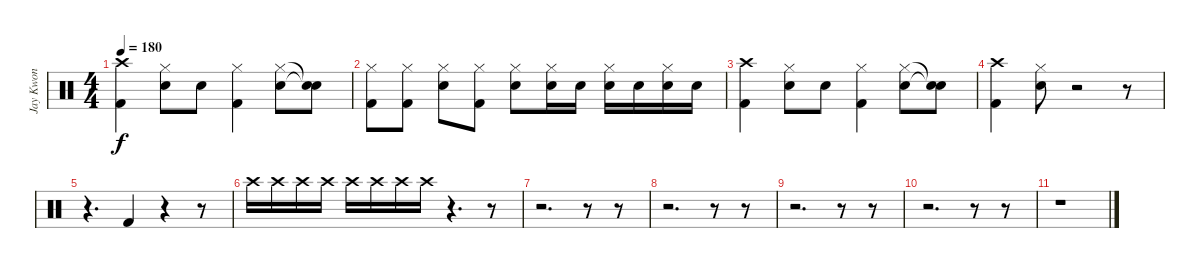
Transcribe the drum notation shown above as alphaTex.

\track ("Jay Kwon" "Jay Kwon") {instrument percussion}
\staff {score}
\articulation defaults
\ts (4 4)
\tempo 180
\clef neutral
\ks c
("Crash high (hit)" "Kick (hit) 2").4{dy f} ("Hi-Hat (closed)" "Electric Snare (hit)").8 "Electric Snare (hit)".8 ("Hi-Hat (closed)" "Kick (hit) 2").4 ("Hi-Hat (closed)" "Electric Snare (hit)").8 ("Snare (hit)"{t} "Snare (hit)"{t}).8 |
("Hi-Hat (closed)" "Kick (hit) 2").8 ("Hi-Hat (closed)" "Kick (hit) 2").8 ("Hi-Hat (closed)" "Electric Snare (hit)").8 ("Hi-Hat (closed)" "Kick (hit) 2").8 ("Hi-Hat (closed)" "Electric Snare (hit)").8 ("Hi-Hat (closed)" "Electric Snare (hit)").16 "Electric Snare (hit)".16 ("Hi-Hat (closed)" "Electric Snare (hit)").16 "Electric Snare (hit)".16 ("Hi-Hat (closed)" "Electric Snare (hit)").16 "Electric Snare (hit)".16 |
("Crash high (hit)" "Kick (hit) 2").4 ("Hi-Hat (closed)" "Electric Snare (hit)").8 "Electric Snare (hit)".8 ("Hi-Hat (closed)" "Kick (hit) 2").4 ("Hi-Hat (closed)" "Electric Snare (hit)").8 ("Snare (hit)"{t} "Snare (hit)"{t}).8 |
("Crash high (hit)" "Kick (hit) 2").4 ("Hi-Hat (closed)" "Electric Snare (hit)").8 r.2 r.8 |
r.4{d} "Kick (hit) 2".4 r.4 r.8 |
"Crash high (hit)".16 "Crash high (hit)".16 "Crash high (hit)".16 "Crash high (hit)".16 "Crash high (hit)".16 "Crash high (hit)".16 "Crash high (hit)".16 "Crash high (hit)".16 r.4{d} r.8 |
r.2{d} r.8 r.8 |
r.2{d} r.8 r.8 |
r.2{d} r.8 r.8 |
r.2{d} r.8 r.8 |
r.1
